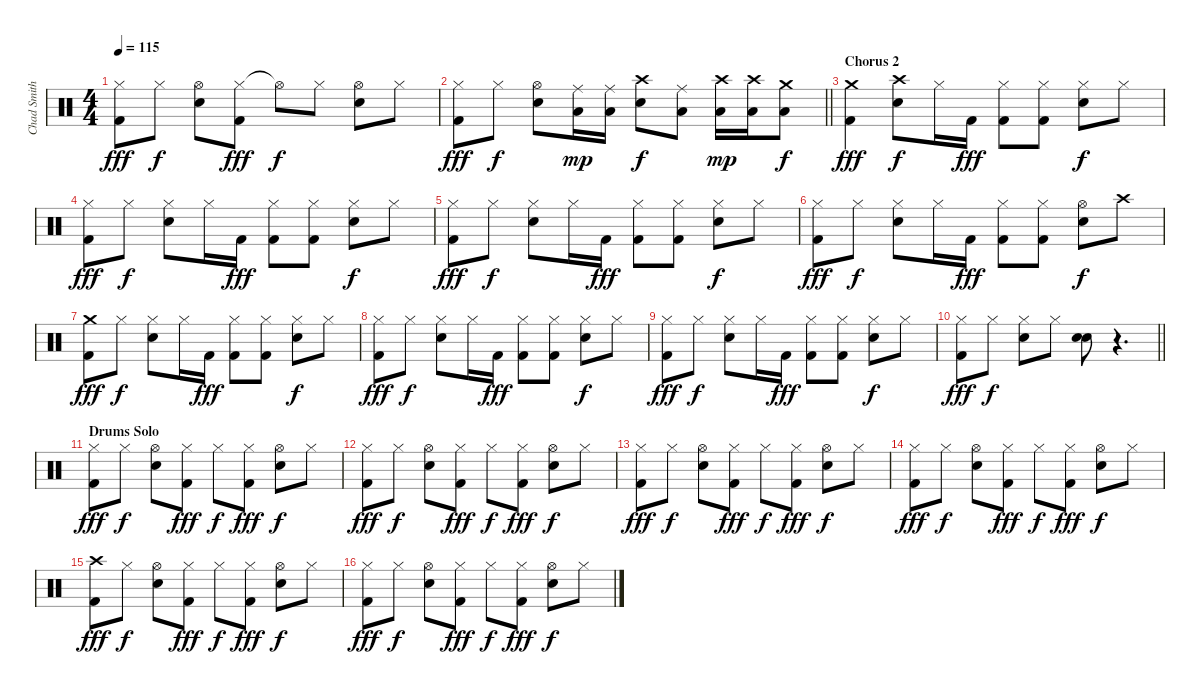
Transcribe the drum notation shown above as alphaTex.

\track ("Chad Smith - Drums" "Chad Smith") {instrument percussion}
\staff {score}
\articulation defaults
\ts (4 4)
\tempo 115
\clef neutral
\ks c
("Hi-Hat (closed)" "Kick (hit) 2").8{dy fff} "Hi-Hat (closed)".8{dy f} ("Hi-Hat (open)" "Electric Snare (hit)").8 ("Hi-Hat (closed)" "Kick (hit) 2").8{dy fff} "Hi-Hat (open)"{t}.8{dy f} "Hi-Hat (closed)".8 ("Hi-Hat (open)" "Electric Snare (hit)").8 "Hi-Hat (closed)".8 |
\barLineRight lightlight
("Hi-Hat (closed)" "Kick (hit) 2").8{dy fff} "Hi-Hat (closed)".8{dy f} ("Hi-Hat (open)" "Electric Snare (hit)").8 ("Ride (middle)" "Low Tom (hit)").16{dy mp} ("Ride (middle)" "Low Tom (hit)").16 ("Crash high (hit)" "Electric Snare (hit)").8{dy f} ("Ride (middle)" "Low Tom (hit)").8 ("Crash high (hit)" "Low Tom (hit)").16{dy mp} ("Crash high (hit)" "Low Tom (hit)").16 ("Crash medium (hit)" "Low Floor Tom (hit)").8{dy f} |
\section ("" "Chorus 2")
("Crash medium (hit)" "Kick (hit) 2").4{dy fff} ("Crash high (hit)" "Electric Snare (hit)").8{dy f} "Hi-Hat (closed)".16 "Kick (hit) 2".16{dy fff} ("Hi-Hat (closed)" "Kick (hit) 2").8 ("Hi-Hat (closed)" "Kick (hit) 2").8 ("Hi-Hat (closed)" "Electric Snare (hit)").8{dy f} "Hi-Hat (closed)".8 |
("Hi-Hat (closed)" "Kick (hit) 2").8{dy fff} "Hi-Hat (closed)".8{dy f} ("Hi-Hat (closed)" "Electric Snare (hit)").8 "Hi-Hat (closed)".16 "Kick (hit) 2".16{dy fff} ("Hi-Hat (closed)" "Kick (hit) 2").8 ("Hi-Hat (closed)" "Kick (hit) 2").8 ("Hi-Hat (closed)" "Electric Snare (hit)").8{dy f} "Hi-Hat (closed)".8 |
("Hi-Hat (closed)" "Kick (hit) 2").8{dy fff} "Hi-Hat (closed)".8{dy f} ("Hi-Hat (closed)" "Electric Snare (hit)").8 "Hi-Hat (closed)".16 "Kick (hit) 2".16{dy fff} ("Hi-Hat (closed)" "Kick (hit) 2").8 ("Hi-Hat (closed)" "Kick (hit) 2").8 ("Hi-Hat (closed)" "Electric Snare (hit)").8{dy f} "Hi-Hat (closed)".8 |
("Hi-Hat (closed)" "Kick (hit) 2").8{dy fff} "Hi-Hat (closed)".8{dy f} ("Hi-Hat (closed)" "Electric Snare (hit)").8 "Hi-Hat (closed)".16 "Kick (hit) 2".16{dy fff} ("Hi-Hat (closed)" "Kick (hit) 2").8 ("Hi-Hat (closed)" "Kick (hit) 2").8 ("Hi-Hat (open)" "Electric Snare (hit)").8{dy f} "Crash high (hit)".8 |
("Crash medium (hit)" "Kick (hit) 2").8{dy fff} "Hi-Hat (closed)".8{dy f} ("Hi-Hat (closed)" "Electric Snare (hit)").8 "Hi-Hat (closed)".16 "Kick (hit) 2".16{dy fff} ("Hi-Hat (closed)" "Kick (hit) 2").8 ("Hi-Hat (closed)" "Kick (hit) 2").8 ("Hi-Hat (closed)" "Electric Snare (hit)").8{dy f} "Hi-Hat (closed)".8 |
("Hi-Hat (closed)" "Kick (hit) 2").8{dy fff} "Hi-Hat (closed)".8{dy f} ("Hi-Hat (closed)" "Electric Snare (hit)").8 "Hi-Hat (closed)".16 "Kick (hit) 2".16{dy fff} ("Hi-Hat (closed)" "Kick (hit) 2").8 ("Hi-Hat (closed)" "Kick (hit) 2").8 ("Hi-Hat (closed)" "Electric Snare (hit)").8{dy f} "Hi-Hat (closed)".8 |
("Hi-Hat (closed)" "Kick (hit) 2").8{dy fff} "Hi-Hat (closed)".8{dy f} ("Hi-Hat (closed)" "Electric Snare (hit)").8 "Hi-Hat (closed)".16 "Kick (hit) 2".16{dy fff} ("Hi-Hat (closed)" "Kick (hit) 2").8 ("Hi-Hat (closed)" "Kick (hit) 2").8 ("Hi-Hat (closed)" "Electric Snare (hit)").8{dy f} "Hi-Hat (closed)".8 |
\barLineRight lightlight
("Hi-Hat (closed)" "Kick (hit) 2").8{dy fff} "Hi-Hat (closed)".8{dy f} ("Hi-Hat (closed)" "Electric Snare (hit)").8 "Hi-Hat (closed)".8 ("Electric Snare (hit)" "Electric Snare (hit)").8 r.4{d} |
\section ("" "Drums Solo")
("Hi-Hat (closed)" "Kick (hit) 2").8{dy fff balance 12} "Hi-Hat (closed)".8{dy f} ("Hi-Hat (open)" "Electric Snare (hit)").8 ("Hi-Hat (closed)" "Kick (hit) 2").8{dy fff} "Hi-Hat (closed)".8{dy f} ("Hi-Hat (closed)" "Kick (hit) 2").8{dy fff} ("Hi-Hat (open)" "Electric Snare (hit)").8{dy f} "Hi-Hat (closed)".8 |
("Hi-Hat (closed)" "Kick (hit) 2").8{dy fff} "Hi-Hat (closed)".8{dy f} ("Hi-Hat (open)" "Electric Snare (hit)").8 ("Hi-Hat (closed)" "Kick (hit) 2").8{dy fff} "Hi-Hat (closed)".8{dy f} ("Hi-Hat (closed)" "Kick (hit) 2").8{dy fff} ("Hi-Hat (open)" "Electric Snare (hit)").8{dy f} "Hi-Hat (closed)".8 |
("Hi-Hat (closed)" "Kick (hit) 2").8{dy fff} "Hi-Hat (closed)".8{dy f} ("Hi-Hat (open)" "Electric Snare (hit)").8 ("Hi-Hat (closed)" "Kick (hit) 2").8{dy fff} "Hi-Hat (closed)".8{dy f} ("Hi-Hat (closed)" "Kick (hit) 2").8{dy fff} ("Hi-Hat (open)" "Electric Snare (hit)").8{dy f} "Hi-Hat (closed)".8 |
("Hi-Hat (closed)" "Kick (hit) 2").8{dy fff} "Hi-Hat (closed)".8{dy f} ("Hi-Hat (open)" "Electric Snare (hit)").8 ("Hi-Hat (closed)" "Kick (hit) 2").8{dy fff} "Hi-Hat (closed)".8{dy f} ("Hi-Hat (closed)" "Kick (hit) 2").8{dy fff} ("Hi-Hat (open)" "Electric Snare (hit)").8{dy f} "Hi-Hat (closed)".8 |
("Crash high (hit)" "Kick (hit) 2").8{dy fff} "Hi-Hat (closed)".8{dy f} ("Hi-Hat (open)" "Electric Snare (hit)").8 ("Hi-Hat (closed)" "Kick (hit) 2").8{dy fff} "Hi-Hat (closed)".8{dy f} ("Hi-Hat (closed)" "Kick (hit) 2").8{dy fff} ("Hi-Hat (open)" "Electric Snare (hit)").8{dy f} "Hi-Hat (closed)".8 |
("Hi-Hat (closed)" "Kick (hit) 2").8{dy fff} "Hi-Hat (closed)".8{dy f} ("Hi-Hat (open)" "Electric Snare (hit)").8 ("Hi-Hat (closed)" "Kick (hit) 2").8{dy fff} "Hi-Hat (closed)".8{dy f} ("Hi-Hat (closed)" "Kick (hit) 2").8{dy fff} ("Hi-Hat (open)" "Electric Snare (hit)").8{dy f} "Hi-Hat (closed)".8
